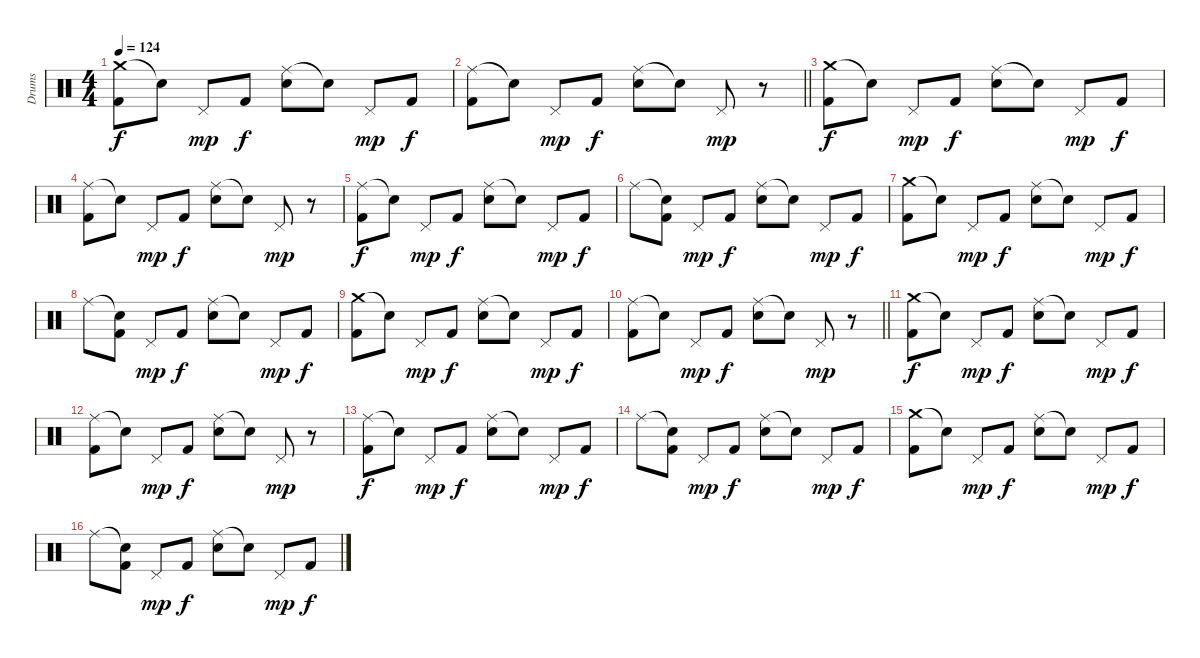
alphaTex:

\track ("Drums" "Drums") {instrument percussion}
\staff {score}
\articulation defaults
\ts (4 4)
\tempo 124
\clef neutral
\ks c
("Crash medium (hit)" "Kick (hit) 2").8{dy f} "Snare (hit)"{t}.8 "Pedal Hi-Hat (hit)".8{dy mp} "Kick (hit) 2".8{dy f} ("Ride (middle)" "Electric Snare (hit)").8 "Snare (hit)"{t}.8 "Pedal Hi-Hat (hit)".8{dy mp} "Kick (hit) 2".8{dy f} |
\barLineRight lightlight
("Ride (middle)" "Kick (hit) 2").8 "Snare (hit)"{t}.8 "Pedal Hi-Hat (hit)".8{dy mp} "Kick (hit) 2".8{dy f} ("Ride (middle)" "Electric Snare (hit)").8 "Snare (hit)"{t}.8 "Pedal Hi-Hat (hit)".8{dy mp} r.8 |
("Crash medium (hit)" "Kick (hit) 2").8{dy f} "Snare (hit)"{t}.8 "Pedal Hi-Hat (hit)".8{dy mp} "Kick (hit) 2".8{dy f} ("Ride (middle)" "Electric Snare (hit)").8 "Snare (hit)"{t}.8 "Pedal Hi-Hat (hit)".8{dy mp} "Kick (hit) 2".8{dy f} |
("Ride (middle)" "Kick (hit) 2").8 "Snare (hit)"{t}.8 "Pedal Hi-Hat (hit)".8{dy mp} "Kick (hit) 2".8{dy f} ("Ride (middle)" "Electric Snare (hit)").8 "Snare (hit)"{t}.8 "Pedal Hi-Hat (hit)".8{dy mp} r.8 |
("Ride (middle)" "Kick (hit) 2").8{dy f} "Snare (hit)"{t}.8 "Pedal Hi-Hat (hit)".8{dy mp} "Kick (hit) 2".8{dy f} ("Ride (middle)" "Electric Snare (hit)").8 "Snare (hit)"{t}.8 "Pedal Hi-Hat (hit)".8{dy mp} "Kick (hit) 2".8{dy f} |
"Ride (middle)".8 ("Snare (hit)"{t} "Kick (hit) 2").8 "Pedal Hi-Hat (hit)".8{dy mp} "Kick (hit) 2".8{dy f} ("Ride (middle)" "Electric Snare (hit)").8 "Snare (hit)"{t}.8 "Pedal Hi-Hat (hit)".8{dy mp} "Kick (hit) 2".8{dy f} |
("Crash medium (hit)" "Kick (hit) 2").8 "Snare (hit)"{t}.8 "Pedal Hi-Hat (hit)".8{dy mp} "Kick (hit) 2".8{dy f} ("Ride (middle)" "Electric Snare (hit)").8 "Snare (hit)"{t}.8 "Pedal Hi-Hat (hit)".8{dy mp} "Kick (hit) 2".8{dy f} |
"Ride (middle)".8 ("Snare (hit)"{t} "Kick (hit) 2").8 "Pedal Hi-Hat (hit)".8{dy mp} "Kick (hit) 2".8{dy f} ("Ride (middle)" "Electric Snare (hit)").8 "Snare (hit)"{t}.8 "Pedal Hi-Hat (hit)".8{dy mp} "Kick (hit) 2".8{dy f} |
("Crash medium (hit)" "Kick (hit) 2").8 "Snare (hit)"{t}.8 "Pedal Hi-Hat (hit)".8{dy mp} "Kick (hit) 2".8{dy f} ("Ride (middle)" "Electric Snare (hit)").8 "Snare (hit)"{t}.8 "Pedal Hi-Hat (hit)".8{dy mp} "Kick (hit) 2".8{dy f} |
\barLineRight lightlight
("Ride (middle)" "Kick (hit) 2").8 "Snare (hit)"{t}.8 "Pedal Hi-Hat (hit)".8{dy mp} "Kick (hit) 2".8{dy f} ("Ride (middle)" "Electric Snare (hit)").8 "Snare (hit)"{t}.8 "Pedal Hi-Hat (hit)".8{dy mp} r.8 |
("Crash medium (hit)" "Kick (hit) 2").8{dy f} "Snare (hit)"{t}.8 "Pedal Hi-Hat (hit)".8{dy mp} "Kick (hit) 2".8{dy f} ("Ride (middle)" "Electric Snare (hit)").8 "Snare (hit)"{t}.8 "Pedal Hi-Hat (hit)".8{dy mp} "Kick (hit) 2".8{dy f} |
("Ride (middle)" "Kick (hit) 2").8 "Snare (hit)"{t}.8 "Pedal Hi-Hat (hit)".8{dy mp} "Kick (hit) 2".8{dy f} ("Ride (middle)" "Electric Snare (hit)").8 "Snare (hit)"{t}.8 "Pedal Hi-Hat (hit)".8{dy mp} r.8 |
("Ride (middle)" "Kick (hit) 2").8{dy f} "Snare (hit)"{t}.8 "Pedal Hi-Hat (hit)".8{dy mp} "Kick (hit) 2".8{dy f} ("Ride (middle)" "Electric Snare (hit)").8 "Snare (hit)"{t}.8 "Pedal Hi-Hat (hit)".8{dy mp} "Kick (hit) 2".8{dy f} |
"Ride (middle)".8 ("Snare (hit)"{t} "Kick (hit) 2").8 "Pedal Hi-Hat (hit)".8{dy mp} "Kick (hit) 2".8{dy f} ("Ride (middle)" "Electric Snare (hit)").8 "Snare (hit)"{t}.8 "Pedal Hi-Hat (hit)".8{dy mp} "Kick (hit) 2".8{dy f} |
("Crash medium (hit)" "Kick (hit) 2").8 "Snare (hit)"{t}.8 "Pedal Hi-Hat (hit)".8{dy mp} "Kick (hit) 2".8{dy f} ("Ride (middle)" "Electric Snare (hit)").8 "Snare (hit)"{t}.8 "Pedal Hi-Hat (hit)".8{dy mp} "Kick (hit) 2".8{dy f} |
"Ride (middle)".8 ("Snare (hit)"{t} "Kick (hit) 2").8 "Pedal Hi-Hat (hit)".8{dy mp} "Kick (hit) 2".8{dy f} ("Ride (middle)" "Electric Snare (hit)").8 "Snare (hit)"{t}.8 "Pedal Hi-Hat (hit)".8{dy mp} "Kick (hit) 2".8{dy f}
